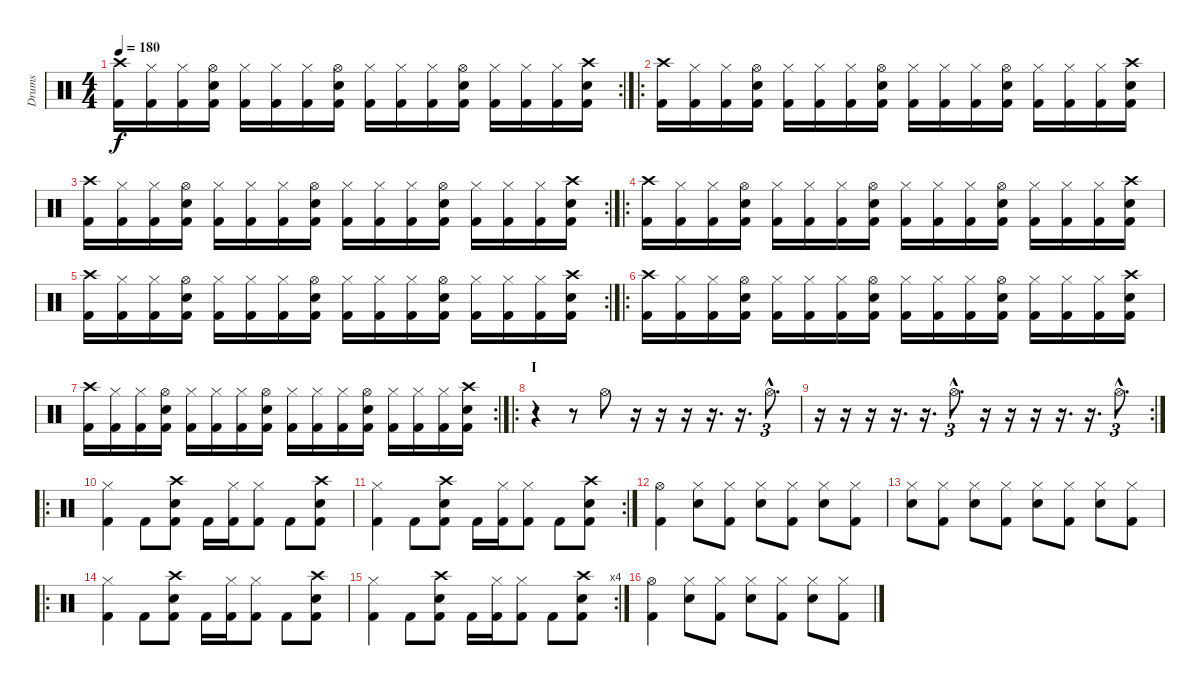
\track ("Drums" "Drums") {instrument percussion}
\staff {score}
\articulation defaults
\rc 2
\ts (4 4)
\tempo 180
\clef neutral
\ks c
("Crash high (hit)" "Kick (hit) 2").16{dy f} ("Hi-Hat (closed)" "Kick (hit) 2").16 ("Hi-Hat (closed)" "Kick (hit) 2").16 ("Hi-Hat (open)" "Snare (hit) 2" "Kick (hit) 2").16 ("Hi-Hat (closed)" "Kick (hit) 2").16 ("Hi-Hat (closed)" "Kick (hit) 2").16 ("Hi-Hat (closed)" "Kick (hit) 2").16 ("Hi-Hat (open)" "Snare (hit) 2" "Kick (hit) 2").16 ("Hi-Hat (closed)" "Kick (hit) 2").16 ("Hi-Hat (closed)" "Kick (hit) 2").16 ("Hi-Hat (closed)" "Kick (hit) 2").16 ("Hi-Hat (open)" "Snare (hit) 2" "Kick (hit) 2").16 ("Hi-Hat (closed)" "Kick (hit) 2").16 ("Hi-Hat (closed)" "Kick (hit) 2").16 ("Hi-Hat (closed)" "Kick (hit) 2").16 ("Crash high (hit)" "Snare (hit) 2" "Kick (hit) 2").16 |
\ro
("Crash high (hit)" "Kick (hit) 2").16 ("Hi-Hat (closed)" "Kick (hit) 2").16 ("Hi-Hat (closed)" "Kick (hit) 2").16 ("Hi-Hat (open)" "Snare (hit) 2" "Kick (hit) 2").16 ("Hi-Hat (closed)" "Kick (hit) 2").16 ("Hi-Hat (closed)" "Kick (hit) 2").16 ("Hi-Hat (closed)" "Kick (hit) 2").16 ("Hi-Hat (open)" "Snare (hit) 2" "Kick (hit) 2").16 ("Hi-Hat (closed)" "Kick (hit) 2").16 ("Hi-Hat (closed)" "Kick (hit) 2").16 ("Hi-Hat (closed)" "Kick (hit) 2").16 ("Hi-Hat (open)" "Snare (hit) 2" "Kick (hit) 2").16 ("Hi-Hat (closed)" "Kick (hit) 2").16 ("Hi-Hat (closed)" "Kick (hit) 2").16 ("Hi-Hat (closed)" "Kick (hit) 2").16 ("Crash high (hit)" "Snare (hit) 2" "Kick (hit) 2").16 |
\rc 2
("Crash high (hit)" "Kick (hit) 2").16 ("Hi-Hat (closed)" "Kick (hit) 2").16 ("Hi-Hat (closed)" "Kick (hit) 2").16 ("Hi-Hat (open)" "Snare (hit) 2" "Kick (hit) 2").16 ("Hi-Hat (closed)" "Kick (hit) 2").16 ("Hi-Hat (closed)" "Kick (hit) 2").16 ("Hi-Hat (closed)" "Kick (hit) 2").16 ("Hi-Hat (open)" "Snare (hit) 2" "Kick (hit) 2").16 ("Hi-Hat (closed)" "Kick (hit) 2").16 ("Hi-Hat (closed)" "Kick (hit) 2").16 ("Hi-Hat (closed)" "Kick (hit) 2").16 ("Hi-Hat (open)" "Snare (hit) 2" "Kick (hit) 2").16 ("Hi-Hat (closed)" "Kick (hit) 2").16 ("Hi-Hat (closed)" "Kick (hit) 2").16 ("Hi-Hat (closed)" "Kick (hit) 2").16 ("Crash high (hit)" "Snare (hit) 2" "Kick (hit) 2").16 |
\ro
("Crash high (hit)" "Kick (hit) 2").16 ("Hi-Hat (closed)" "Kick (hit) 2").16 ("Hi-Hat (closed)" "Kick (hit) 2").16 ("Hi-Hat (open)" "Snare (hit) 2" "Kick (hit) 2").16 ("Hi-Hat (closed)" "Kick (hit) 2").16 ("Hi-Hat (closed)" "Kick (hit) 2").16 ("Hi-Hat (closed)" "Kick (hit) 2").16 ("Hi-Hat (open)" "Snare (hit) 2" "Kick (hit) 2").16 ("Hi-Hat (closed)" "Kick (hit) 2").16 ("Hi-Hat (closed)" "Kick (hit) 2").16 ("Hi-Hat (closed)" "Kick (hit) 2").16 ("Hi-Hat (open)" "Snare (hit) 2" "Kick (hit) 2").16 ("Hi-Hat (closed)" "Kick (hit) 2").16 ("Hi-Hat (closed)" "Kick (hit) 2").16 ("Hi-Hat (closed)" "Kick (hit) 2").16 ("Crash high (hit)" "Snare (hit) 2" "Kick (hit) 2").16 |
\rc 2
("Crash high (hit)" "Kick (hit) 2").16 ("Hi-Hat (closed)" "Kick (hit) 2").16 ("Hi-Hat (closed)" "Kick (hit) 2").16 ("Hi-Hat (open)" "Snare (hit) 2" "Kick (hit) 2").16 ("Hi-Hat (closed)" "Kick (hit) 2").16 ("Hi-Hat (closed)" "Kick (hit) 2").16 ("Hi-Hat (closed)" "Kick (hit) 2").16 ("Hi-Hat (open)" "Snare (hit) 2" "Kick (hit) 2").16 ("Hi-Hat (closed)" "Kick (hit) 2").16 ("Hi-Hat (closed)" "Kick (hit) 2").16 ("Hi-Hat (closed)" "Kick (hit) 2").16 ("Hi-Hat (open)" "Snare (hit) 2" "Kick (hit) 2").16 ("Hi-Hat (closed)" "Kick (hit) 2").16 ("Hi-Hat (closed)" "Kick (hit) 2").16 ("Hi-Hat (closed)" "Kick (hit) 2").16 ("Crash high (hit)" "Snare (hit) 2" "Kick (hit) 2").16 |
\ro
("Crash high (hit)" "Kick (hit) 2").16 ("Hi-Hat (closed)" "Kick (hit) 2").16 ("Hi-Hat (closed)" "Kick (hit) 2").16 ("Hi-Hat (open)" "Snare (hit) 2" "Kick (hit) 2").16 ("Hi-Hat (closed)" "Kick (hit) 2").16 ("Hi-Hat (closed)" "Kick (hit) 2").16 ("Hi-Hat (closed)" "Kick (hit) 2").16 ("Hi-Hat (open)" "Snare (hit) 2" "Kick (hit) 2").16 ("Hi-Hat (closed)" "Kick (hit) 2").16 ("Hi-Hat (closed)" "Kick (hit) 2").16 ("Hi-Hat (closed)" "Kick (hit) 2").16 ("Hi-Hat (open)" "Snare (hit) 2" "Kick (hit) 2").16 ("Hi-Hat (closed)" "Kick (hit) 2").16 ("Hi-Hat (closed)" "Kick (hit) 2").16 ("Hi-Hat (closed)" "Kick (hit) 2").16 ("Crash high (hit)" "Snare (hit) 2" "Kick (hit) 2").16 |
\rc 2
("Crash high (hit)" "Kick (hit) 2").16 ("Hi-Hat (closed)" "Kick (hit) 2").16 ("Hi-Hat (closed)" "Kick (hit) 2").16 ("Hi-Hat (open)" "Snare (hit) 2" "Kick (hit) 2").16 ("Hi-Hat (closed)" "Kick (hit) 2").16 ("Hi-Hat (closed)" "Kick (hit) 2").16 ("Hi-Hat (closed)" "Kick (hit) 2").16 ("Hi-Hat (open)" "Snare (hit) 2" "Kick (hit) 2").16 ("Hi-Hat (closed)" "Kick (hit) 2").16 ("Hi-Hat (closed)" "Kick (hit) 2").16 ("Hi-Hat (closed)" "Kick (hit) 2").16 ("Hi-Hat (open)" "Snare (hit) 2" "Kick (hit) 2").16 ("Hi-Hat (closed)" "Kick (hit) 2").16 ("Hi-Hat (closed)" "Kick (hit) 2").16 ("Hi-Hat (closed)" "Kick (hit) 2").16 ("Crash high (hit)" "Snare (hit) 2" "Kick (hit) 2").16 |
\ro
\section ("" "I")
r.4 r.8 "Hi-Hat (open)".8 r.16 r.16 r.16 r.16{d} r.16{d} "Hi-Hat (open)"{hac}.8{d tu (3 2)} |
\rc 2
r.16 r.16 r.16 r.16{d} r.16{d} "Hi-Hat (open)"{hac}.8{d tu (3 2)} r.16 r.16 r.16 r.16{d} r.16{d} "Hi-Hat (open)"{hac}.8{d tu (3 2)} |
\ro
("Hi-Hat (closed)" "Kick (hit) 2").4 "Kick (hit) 2".8 ("Crash high (hit)" "Snare (hit) 2" "Kick (hit) 2").8 "Kick (hit) 2".16 ("Hi-Hat (closed)" "Kick (hit) 2").16 ("Hi-Hat (closed)" "Kick (hit) 2").8 "Kick (hit) 2".8 ("Snare (hit) 2" "Crash high (hit)" "Kick (hit) 2").8 |
\rc 2
("Hi-Hat (closed)" "Kick (hit) 2").4 "Kick (hit) 2".8 ("Crash high (hit)" "Snare (hit) 2" "Kick (hit) 2").8 "Kick (hit) 2".16 ("Hi-Hat (closed)" "Kick (hit) 2").16 ("Hi-Hat (closed)" "Kick (hit) 2").8 "Kick (hit) 2".8 ("Snare (hit) 2" "Crash high (hit)" "Kick (hit) 2").8 |
("Hi-Hat (open)" "Kick (hit) 2").4 ("Snare (hit) 2" "Hi-Hat (closed)").8 ("Hi-Hat (closed)" "Kick (hit) 2").8 ("Snare (hit) 2" "Hi-Hat (closed)").8 ("Kick (hit) 2" "Hi-Hat (closed)").8 ("Snare (hit) 2" "Hi-Hat (closed)").8 ("Kick (hit) 2" "Hi-Hat (closed)").8 |
("Snare (hit) 2" "Hi-Hat (closed)").8 ("Kick (hit) 2" "Hi-Hat (closed)").8 ("Snare (hit) 2" "Hi-Hat (closed)").8 ("Kick (hit) 2" "Hi-Hat (closed)").8 ("Snare (hit) 2" "Hi-Hat (closed)").8 ("Kick (hit) 2" "Hi-Hat (closed)").8 ("Snare (hit) 2" "Hi-Hat (closed)").8 ("Kick (hit) 2" "Hi-Hat (closed)").8 |
\ro
("Hi-Hat (closed)" "Kick (hit) 2").4 "Kick (hit) 2".8 ("Crash high (hit)" "Snare (hit) 2" "Kick (hit) 2").8 "Kick (hit) 2".16 ("Hi-Hat (closed)" "Kick (hit) 2").16 ("Hi-Hat (closed)" "Kick (hit) 2").8 "Kick (hit) 2".8 ("Snare (hit) 2" "Crash high (hit)" "Kick (hit) 2").8 |
\rc 4
("Hi-Hat (closed)" "Kick (hit) 2").4 "Kick (hit) 2".8 ("Crash high (hit)" "Snare (hit) 2" "Kick (hit) 2").8 "Kick (hit) 2".16 ("Hi-Hat (closed)" "Kick (hit) 2").16 ("Hi-Hat (closed)" "Kick (hit) 2").8 "Kick (hit) 2".8 ("Snare (hit) 2" "Crash high (hit)" "Kick (hit) 2").8 |
("Hi-Hat (open)" "Kick (hit) 2").4 ("Snare (hit) 2" "Hi-Hat (closed)").8 ("Hi-Hat (closed)" "Kick (hit) 2").8 ("Snare (hit) 2" "Hi-Hat (closed)").8 ("Kick (hit) 2" "Hi-Hat (closed)").8 ("Snare (hit) 2" "Hi-Hat (closed)").8 ("Kick (hit) 2" "Hi-Hat (closed)").8
